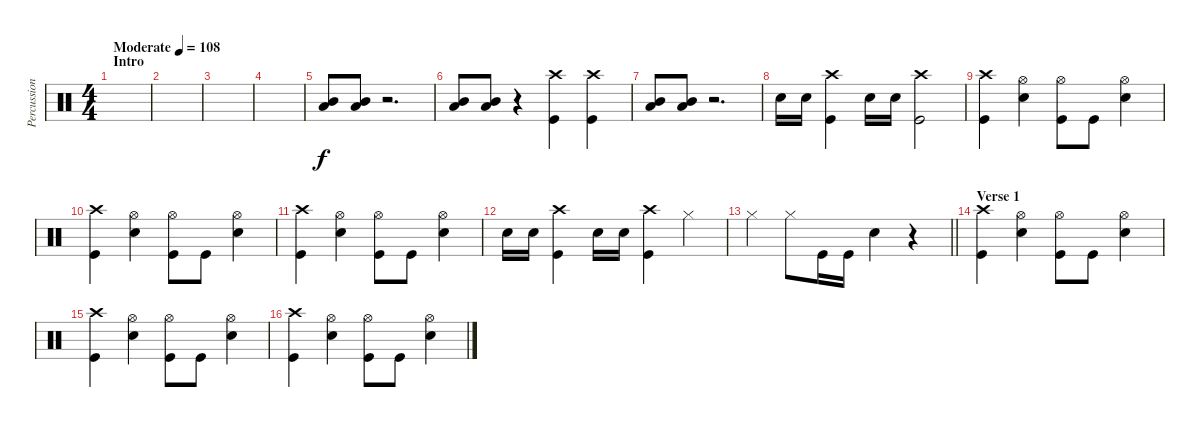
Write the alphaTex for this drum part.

\track ("Percussion" "Percussion") {instrument percussion}
\staff {score}
\articulation defaults
\ts (4 4)
\section ("" "Intro")
\tempo (108 "Moderate")
\clef neutral
\ks c
|
|
|
|
("Low Tom (hit)" "Mid Tom (hit)").8 ("Low Tom (hit)" "Mid Tom (hit)").8 r.2{d} |
("Low Tom (hit)" "Mid Tom (hit)").8 ("Low Tom (hit)" "Mid Tom (hit)").8 r.4 ("Crash high (hit)" "Kick (hit)").4 ("Crash high (hit)" "Kick (hit)").4 |
("Low Tom (hit)" "Mid Tom (hit)").8 ("Low Tom (hit)" "Mid Tom (hit)").8 r.2{d} |
"Snare (hit) 2".16 "Snare (hit) 2".16 ("Crash high (hit)" "Kick (hit)").4 "Snare (hit) 2".16 "Snare (hit) 2".16 ("Crash high (hit)" "Kick (hit)").2 |
("Crash high (hit)" "Kick (hit)").4 ("Snare (hit) 2" "Hi-Hat (open)").4 ("Hi-Hat (open)" "Kick (hit)").8 "Kick (hit)".8 ("Hi-Hat (open)" "Snare (hit) 2").4 |
("Crash high (hit)" "Kick (hit)").4 ("Snare (hit) 2" "Hi-Hat (open)").4 ("Hi-Hat (open)" "Kick (hit)").8 "Kick (hit)".8 ("Hi-Hat (open)" "Snare (hit) 2").4 |
("Crash high (hit)" "Kick (hit)").4 ("Snare (hit) 2" "Hi-Hat (open)").4 ("Hi-Hat (open)" "Kick (hit)").8 "Kick (hit)".8 ("Hi-Hat (open)" "Snare (hit) 2").4 |
"Snare (hit) 2".16 "Snare (hit) 2".16 ("Crash high (hit)" "Kick (hit)").4 "Snare (hit) 2".16 "Snare (hit) 2".16 ("Crash high (hit)" "Kick (hit)").4 "Hi-Hat (closed)".4 |
\barLineRight lightlight "Hi-Hat (closed)".4 "Hi-Hat (closed)".8 "Kick (hit)".16 "Kick (hit)".16 "Snare (hit) 2".4
r.4 |
\section ("" "Verse 1")
("Crash high (hit)" "Kick (hit)").4 ("Snare (hit) 2" "Hi-Hat (open)").4 ("Hi-Hat (open)" "Kick (hit)").8 "Kick (hit)".8 ("Hi-Hat (open)" "Snare (hit) 2").4 |
("Crash high (hit)" "Kick (hit)").4 ("Snare (hit) 2" "Hi-Hat (open)").4 ("Hi-Hat (open)" "Kick (hit)").8 "Kick (hit)".8 ("Hi-Hat (open)" "Snare (hit) 2").4 |
("Crash high (hit)" "Kick (hit)").4 ("Snare (hit) 2" "Hi-Hat (open)").4 ("Hi-Hat (open)" "Kick (hit)").8 "Kick (hit)".8 ("Hi-Hat (open)" "Snare (hit) 2").4
